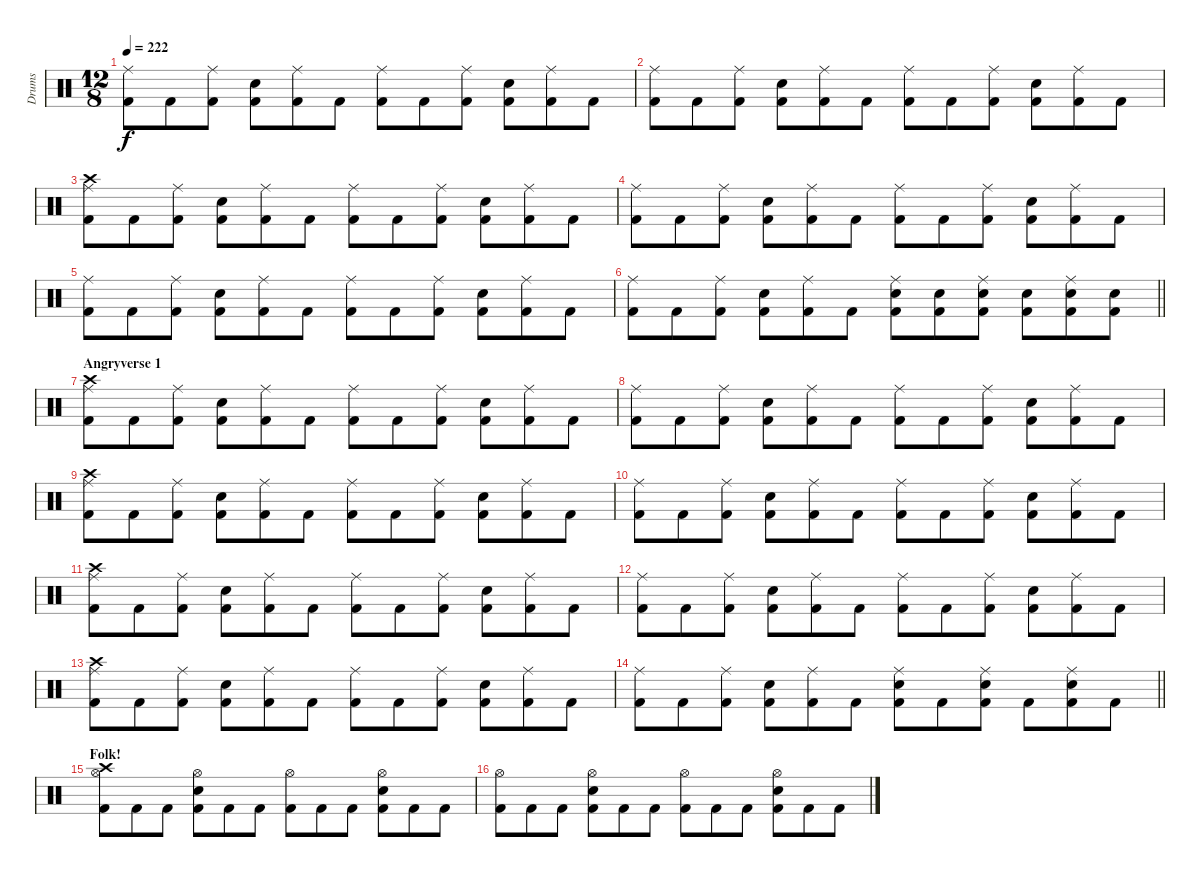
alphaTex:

\track ("Drums" "Drums") {instrument percussion}
\staff {score}
\articulation defaults
\ts (12 8)
\tempo 222
\clef neutral
\ks c
("Ride (middle)" "Kick (hit) 2").8{dy f} "Kick (hit) 2".8 ("Ride (middle)" "Kick (hit) 2").8 ("Snare (hit) 2" "Kick (hit) 2").8 ("Ride (middle)" "Kick (hit) 2").8 "Kick (hit) 2".8 ("Ride (middle)" "Kick (hit) 2").8 "Kick (hit) 2".8 ("Ride (middle)" "Kick (hit) 2").8 ("Snare (hit) 2" "Kick (hit) 2").8 ("Ride (middle)" "Kick (hit) 2").8 "Kick (hit) 2".8 |
("Ride (middle)" "Kick (hit) 2").8 "Kick (hit) 2".8 ("Ride (middle)" "Kick (hit) 2").8 ("Snare (hit) 2" "Kick (hit) 2").8 ("Ride (middle)" "Kick (hit) 2").8 "Kick (hit) 2".8 ("Ride (middle)" "Kick (hit) 2").8 "Kick (hit) 2".8 ("Ride (middle)" "Kick (hit) 2").8 ("Snare (hit) 2" "Kick (hit) 2").8 ("Ride (middle)" "Kick (hit) 2").8 "Kick (hit) 2".8 |
("Crash high (hit)" "Ride (middle)" "Kick (hit) 2").8 "Kick (hit) 2".8 ("Ride (middle)" "Kick (hit) 2").8 ("Snare (hit) 2" "Kick (hit) 2").8 ("Ride (middle)" "Kick (hit) 2").8 "Kick (hit) 2".8 ("Ride (middle)" "Kick (hit) 2").8 "Kick (hit) 2".8 ("Ride (middle)" "Kick (hit) 2").8 ("Snare (hit) 2" "Kick (hit) 2").8 ("Ride (middle)" "Kick (hit) 2").8 "Kick (hit) 2".8 |
("Ride (middle)" "Kick (hit) 2").8 "Kick (hit) 2".8 ("Ride (middle)" "Kick (hit) 2").8 ("Snare (hit) 2" "Kick (hit) 2").8 ("Ride (middle)" "Kick (hit) 2").8 "Kick (hit) 2".8 ("Ride (middle)" "Kick (hit) 2").8 "Kick (hit) 2".8 ("Ride (middle)" "Kick (hit) 2").8 ("Snare (hit) 2" "Kick (hit) 2").8 ("Ride (middle)" "Kick (hit) 2").8 "Kick (hit) 2".8 |
("Ride (middle)" "Kick (hit) 2").8 "Kick (hit) 2".8 ("Ride (middle)" "Kick (hit) 2").8 ("Snare (hit) 2" "Kick (hit) 2").8 ("Ride (middle)" "Kick (hit) 2").8 "Kick (hit) 2".8 ("Ride (middle)" "Kick (hit) 2").8 "Kick (hit) 2".8 ("Ride (middle)" "Kick (hit) 2").8 ("Snare (hit) 2" "Kick (hit) 2").8 ("Ride (middle)" "Kick (hit) 2").8 "Kick (hit) 2".8 |
\barLineRight lightlight
("Ride (middle)" "Kick (hit) 2").8 "Kick (hit) 2".8 ("Ride (middle)" "Kick (hit) 2").8 ("Snare (hit) 2" "Kick (hit) 2").8 ("Ride (middle)" "Kick (hit) 2").8 "Kick (hit) 2".8 ("Ride (middle)" "Snare (hit) 2" "Kick (hit) 2").8 ("Snare (hit) 2" "Kick (hit) 2").8 ("Ride (middle)" "Snare (hit) 2" "Kick (hit) 2").8 ("Snare (hit) 2" "Kick (hit) 2").8 ("Ride (middle)" "Snare (hit) 2" "Kick (hit) 2").8 ("Snare (hit) 2" "Kick (hit) 2").8 |
\section ("" "Angryverse 1")
("Crash high (hit)" "Ride (middle)" "Kick (hit) 2").8 "Kick (hit) 2".8 ("Ride (middle)" "Kick (hit) 2").8 ("Snare (hit) 2" "Kick (hit) 2").8 ("Ride (middle)" "Kick (hit) 2").8 "Kick (hit) 2".8 ("Ride (middle)" "Kick (hit) 2").8 "Kick (hit) 2".8 ("Ride (middle)" "Kick (hit) 2").8 ("Snare (hit) 2" "Kick (hit) 2").8 ("Ride (middle)" "Kick (hit) 2").8 "Kick (hit) 2".8 |
("Ride (middle)" "Kick (hit) 2").8 "Kick (hit) 2".8 ("Ride (middle)" "Kick (hit) 2").8 ("Snare (hit) 2" "Kick (hit) 2").8 ("Ride (middle)" "Kick (hit) 2").8 "Kick (hit) 2".8 ("Ride (middle)" "Kick (hit) 2").8 "Kick (hit) 2".8 ("Ride (middle)" "Kick (hit) 2").8 ("Snare (hit) 2" "Kick (hit) 2").8 ("Ride (middle)" "Kick (hit) 2").8 "Kick (hit) 2".8 |
("Crash high (hit)" "Ride (middle)" "Kick (hit) 2").8 "Kick (hit) 2".8 ("Ride (middle)" "Kick (hit) 2").8 ("Snare (hit) 2" "Kick (hit) 2").8 ("Ride (middle)" "Kick (hit) 2").8 "Kick (hit) 2".8 ("Ride (middle)" "Kick (hit) 2").8 "Kick (hit) 2".8 ("Ride (middle)" "Kick (hit) 2").8 ("Snare (hit) 2" "Kick (hit) 2").8 ("Ride (middle)" "Kick (hit) 2").8 "Kick (hit) 2".8 |
("Ride (middle)" "Kick (hit) 2").8 "Kick (hit) 2".8 ("Ride (middle)" "Kick (hit) 2").8 ("Snare (hit) 2" "Kick (hit) 2").8 ("Ride (middle)" "Kick (hit) 2").8 "Kick (hit) 2".8 ("Ride (middle)" "Kick (hit) 2").8 "Kick (hit) 2".8 ("Ride (middle)" "Kick (hit) 2").8 ("Snare (hit) 2" "Kick (hit) 2").8 ("Ride (middle)" "Kick (hit) 2").8 "Kick (hit) 2".8 |
("Crash high (hit)" "Ride (middle)" "Kick (hit) 2").8 "Kick (hit) 2".8 ("Ride (middle)" "Kick (hit) 2").8 ("Snare (hit) 2" "Kick (hit) 2").8 ("Ride (middle)" "Kick (hit) 2").8 "Kick (hit) 2".8 ("Ride (middle)" "Kick (hit) 2").8 "Kick (hit) 2".8 ("Ride (middle)" "Kick (hit) 2").8 ("Snare (hit) 2" "Kick (hit) 2").8 ("Ride (middle)" "Kick (hit) 2").8 "Kick (hit) 2".8 |
("Ride (middle)" "Kick (hit) 2").8 "Kick (hit) 2".8 ("Ride (middle)" "Kick (hit) 2").8 ("Snare (hit) 2" "Kick (hit) 2").8 ("Ride (middle)" "Kick (hit) 2").8 "Kick (hit) 2".8 ("Ride (middle)" "Kick (hit) 2").8 "Kick (hit) 2".8 ("Ride (middle)" "Kick (hit) 2").8 ("Snare (hit) 2" "Kick (hit) 2").8 ("Ride (middle)" "Kick (hit) 2").8 "Kick (hit) 2".8 |
("Crash high (hit)" "Ride (middle)" "Kick (hit) 2").8 "Kick (hit) 2".8 ("Ride (middle)" "Kick (hit) 2").8 ("Snare (hit) 2" "Kick (hit) 2").8 ("Ride (middle)" "Kick (hit) 2").8 "Kick (hit) 2".8 ("Ride (middle)" "Kick (hit) 2").8 "Kick (hit) 2".8 ("Ride (middle)" "Kick (hit) 2").8 ("Snare (hit) 2" "Kick (hit) 2").8 ("Ride (middle)" "Kick (hit) 2").8 "Kick (hit) 2".8 |
\barLineRight lightlight
("Ride (middle)" "Kick (hit) 2").8 "Kick (hit) 2".8 ("Ride (middle)" "Kick (hit) 2").8 ("Snare (hit) 2" "Kick (hit) 2").8 ("Ride (middle)" "Kick (hit) 2").8 "Kick (hit) 2".8 ("Ride (middle)" "Snare (hit) 2" "Kick (hit) 2").8 "Kick (hit) 2".8 ("Ride (middle)" "Snare (hit) 2" "Kick (hit) 2").8 "Kick (hit) 2".8 ("Ride (middle)" "Snare (hit) 2" "Kick (hit) 2").8 "Kick (hit) 2".8 |
\section ("" "Folk!")
("Crash high (hit)" "Hi-Hat (open)" "Kick (hit) 2").8 "Kick (hit) 2".8 "Kick (hit) 2".8 ("Hi-Hat (open)" "Snare (hit) 2" "Kick (hit) 2").8 "Kick (hit) 2".8 "Kick (hit) 2".8 ("Hi-Hat (open)" "Kick (hit) 2").8 "Kick (hit) 2".8 "Kick (hit) 2".8 ("Hi-Hat (open)" "Snare (hit) 2" "Kick (hit) 2").8 "Kick (hit) 2".8 "Kick (hit) 2".8 |
("Hi-Hat (open)" "Kick (hit) 2").8 "Kick (hit) 2".8 "Kick (hit) 2".8 ("Hi-Hat (open)" "Snare (hit) 2" "Kick (hit) 2").8 "Kick (hit) 2".8 "Kick (hit) 2".8 ("Hi-Hat (open)" "Kick (hit) 2").8 "Kick (hit) 2".8 "Kick (hit) 2".8 ("Hi-Hat (open)" "Snare (hit) 2" "Kick (hit) 2").8 "Kick (hit) 2".8 "Kick (hit) 2".8
